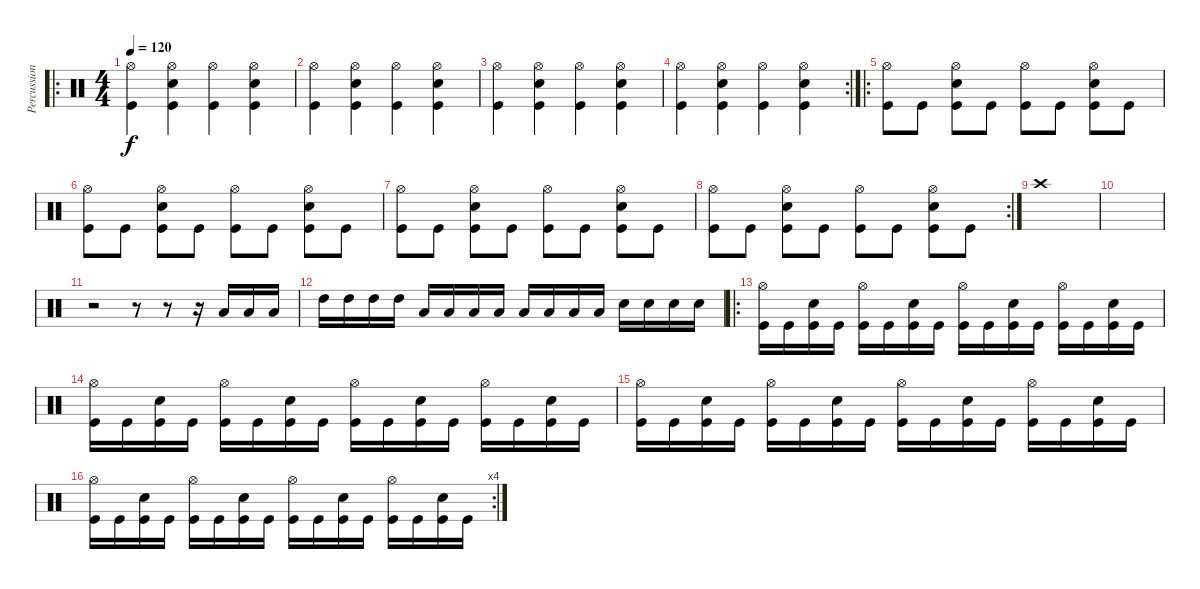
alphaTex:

\track ("Percussion" "Percussion") {instrument percussion}
\staff {score}
\articulation defaults
\ro
\ts (4 4)
\tempo 120
\clef neutral
\ks c
("Hi-Hat (open)" "Kick (hit)").4{dy f} ("Hi-Hat (open)" "Electric Snare (hit)" "Kick (hit)").4 ("Hi-Hat (open)" "Kick (hit)").4 ("Hi-Hat (open)" "Electric Snare (hit)" "Kick (hit)").4 |
("Hi-Hat (open)" "Kick (hit)").4 ("Hi-Hat (open)" "Electric Snare (hit)" "Kick (hit)").4 ("Hi-Hat (open)" "Kick (hit)").4 ("Hi-Hat (open)" "Electric Snare (hit)" "Kick (hit)").4 |
("Hi-Hat (open)" "Kick (hit)").4 ("Hi-Hat (open)" "Electric Snare (hit)" "Kick (hit)").4 ("Hi-Hat (open)" "Kick (hit)").4 ("Hi-Hat (open)" "Electric Snare (hit)" "Kick (hit)").4 |
\rc 2
("Hi-Hat (open)" "Kick (hit)").4 ("Hi-Hat (open)" "Electric Snare (hit)" "Kick (hit)").4 ("Hi-Hat (open)" "Kick (hit)").4 ("Hi-Hat (open)" "Electric Snare (hit)" "Kick (hit)").4 |
\ro
("Hi-Hat (open)" "Kick (hit)").8 "Kick (hit)".8 ("Hi-Hat (open)" "Electric Snare (hit)" "Kick (hit)").8 "Kick (hit)".8 ("Hi-Hat (open)" "Kick (hit)").8 "Kick (hit)".8 ("Hi-Hat (open)" "Electric Snare (hit)" "Kick (hit)").8 "Kick (hit)".8 |
("Hi-Hat (open)" "Kick (hit)").8 "Kick (hit)".8 ("Hi-Hat (open)" "Electric Snare (hit)" "Kick (hit)").8 "Kick (hit)".8 ("Hi-Hat (open)" "Kick (hit)").8 "Kick (hit)".8 ("Hi-Hat (open)" "Electric Snare (hit)" "Kick (hit)").8 "Kick (hit)".8 |
("Hi-Hat (open)" "Kick (hit)").8 "Kick (hit)".8 ("Hi-Hat (open)" "Electric Snare (hit)" "Kick (hit)").8 "Kick (hit)".8 ("Hi-Hat (open)" "Kick (hit)").8 "Kick (hit)".8 ("Hi-Hat (open)" "Electric Snare (hit)" "Kick (hit)").8 "Kick (hit)".8 |
\rc 2
("Hi-Hat (open)" "Kick (hit)").8 "Kick (hit)".8 ("Hi-Hat (open)" "Electric Snare (hit)" "Kick (hit)").8 "Kick (hit)".8 ("Hi-Hat (open)" "Kick (hit)").8 "Kick (hit)".8 ("Hi-Hat (open)" "Electric Snare (hit)" "Kick (hit)").8 "Kick (hit)".8 |
"Crash high (hit)".1 |
|
r.2 r.8 r.8 r.16 "Low Tom (hit)".16 "Low Tom (hit)".16 "Low Tom (hit)".16 |
"High Tom (hit)".16 "High Tom (hit)".16 "High Tom (hit)".16 "High Tom (hit)".16 "Low Tom (hit)".16 "Low Tom (hit)".16 "Low Tom (hit)".16 "Low Tom (hit)".16 "Low Floor Tom (hit)".16 "Low Floor Tom (hit)".16 "Low Floor Tom (hit)".16 "Low Floor Tom (hit)".16 "Electric Snare (hit)".16 "Electric Snare (hit)".16 "Electric Snare (hit)".16 "Electric Snare (hit)".16 |
\ro
("Hi-Hat (open)" "Kick (hit)").16 "Kick (hit)".16 ("Electric Snare (hit)" "Kick (hit)").16 "Kick (hit)".16 ("Hi-Hat (open)" "Kick (hit)").16 "Kick (hit)".16 ("Electric Snare (hit)" "Kick (hit)").16 "Kick (hit)".16 ("Hi-Hat (open)" "Kick (hit)").16 "Kick (hit)".16 ("Electric Snare (hit)" "Kick (hit)").16 "Kick (hit)".16 ("Hi-Hat (open)" "Kick (hit)").16 "Kick (hit)".16 ("Electric Snare (hit)" "Kick (hit)").16 "Kick (hit)".16 |
("Hi-Hat (open)" "Kick (hit)").16 "Kick (hit)".16 ("Electric Snare (hit)" "Kick (hit)").16 "Kick (hit)".16 ("Hi-Hat (open)" "Kick (hit)").16 "Kick (hit)".16 ("Electric Snare (hit)" "Kick (hit)").16 "Kick (hit)".16 ("Hi-Hat (open)" "Kick (hit)").16 "Kick (hit)".16 ("Electric Snare (hit)" "Kick (hit)").16 "Kick (hit)".16 ("Hi-Hat (open)" "Kick (hit)").16 "Kick (hit)".16 ("Electric Snare (hit)" "Kick (hit)").16 "Kick (hit)".16 |
("Hi-Hat (open)" "Kick (hit)").16 "Kick (hit)".16 ("Electric Snare (hit)" "Kick (hit)").16 "Kick (hit)".16 ("Hi-Hat (open)" "Kick (hit)").16 "Kick (hit)".16 ("Electric Snare (hit)" "Kick (hit)").16 "Kick (hit)".16 ("Hi-Hat (open)" "Kick (hit)").16 "Kick (hit)".16 ("Electric Snare (hit)" "Kick (hit)").16 "Kick (hit)".16 ("Hi-Hat (open)" "Kick (hit)").16 "Kick (hit)".16 ("Electric Snare (hit)" "Kick (hit)").16 "Kick (hit)".16 |
\rc 4
("Hi-Hat (open)" "Kick (hit)").16 "Kick (hit)".16 ("Electric Snare (hit)" "Kick (hit)").16 "Kick (hit)".16 ("Hi-Hat (open)" "Kick (hit)").16 "Kick (hit)".16 ("Electric Snare (hit)" "Kick (hit)").16 "Kick (hit)".16 ("Hi-Hat (open)" "Kick (hit)").16 "Kick (hit)".16 ("Electric Snare (hit)" "Kick (hit)").16 "Kick (hit)".16 ("Hi-Hat (open)" "Kick (hit)").16 "Kick (hit)".16 ("Electric Snare (hit)" "Kick (hit)").16 "Kick (hit)".16
